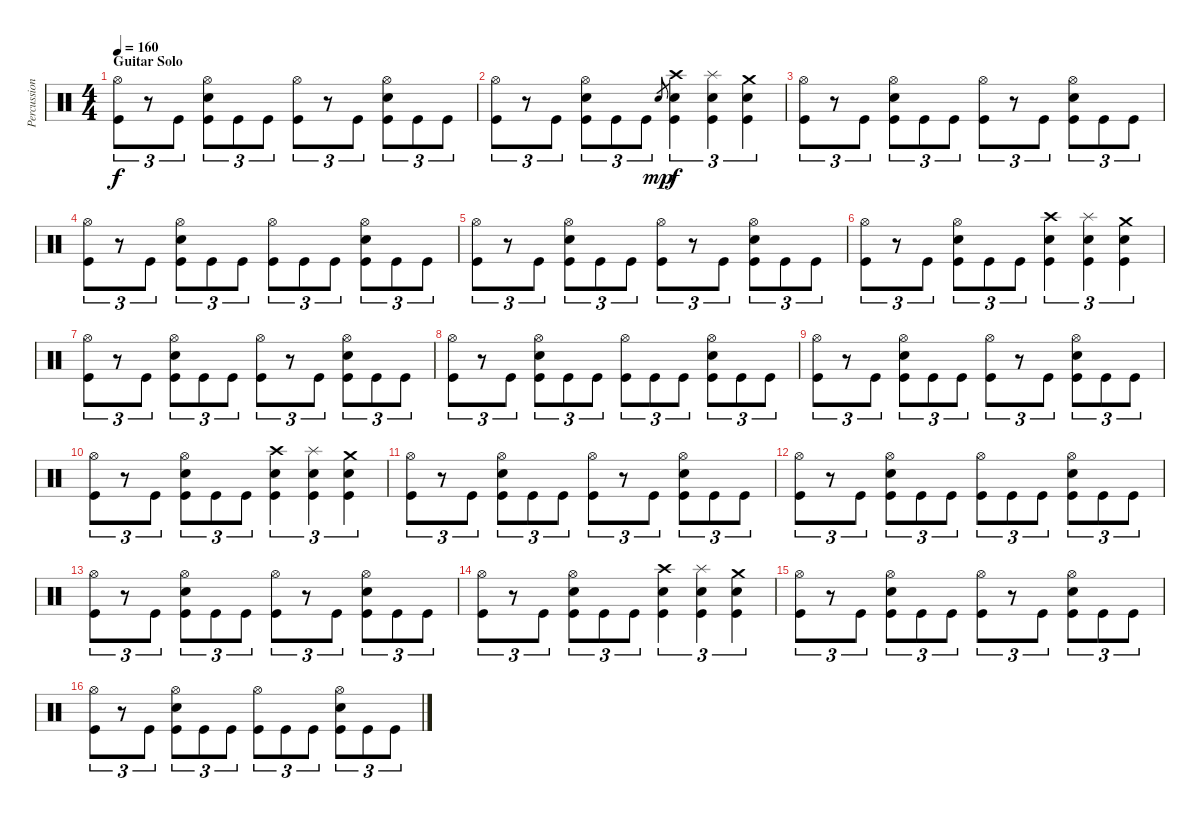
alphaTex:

\track ("Percussion" "Percussion") {instrument percussion}
\staff {score}
\articulation defaults
\ts (4 4)
\section ("" "Guitar Solo")
\tempo 160
\clef neutral
\ks c
("Hi-Hat (open)" "Kick (hit)").8{tu (3 2) dy f} r.8{tu (3 2)} "Kick (hit)".8{tu (3 2)} ("Hi-Hat (open)" "Snare (hit) 2" "Kick (hit)").8{tu (3 2)} "Kick (hit)".8{tu (3 2)} "Kick (hit)".8{tu (3 2)} ("Hi-Hat (open)" "Kick (hit)").8{tu (3 2)} r.8{tu (3 2)} "Kick (hit)".8{tu (3 2)} ("Hi-Hat (open)" "Snare (hit) 2" "Kick (hit)").8{tu (3 2)} "Kick (hit)".8{tu (3 2)} "Kick (hit)".8{tu (3 2)} |
("Hi-Hat (open)" "Kick (hit)").8{tu (3 2)} r.8{tu (3 2)} "Kick (hit)".8{tu (3 2)} ("Hi-Hat (open)" "Snare (hit) 2" "Kick (hit)").8{tu (3 2)} "Kick (hit)".8{tu (3 2)} "Kick (hit)".8{tu (3 2)} "Snare (hit) 2".8{gr dy mp} ("Snare (hit) 2" "Crash high (hit)" "Kick (hit)").4{tu (3 2) dy f} ("Snare (hit) 2" "Splash (hit)" "Kick (hit)").4{tu (3 2)} ("Snare (hit) 2" "Crash medium (hit)" "Kick (hit)").4{tu (3 2)} |
("Hi-Hat (open)" "Kick (hit)").8{tu (3 2)} r.8{tu (3 2)} "Kick (hit)".8{tu (3 2)} ("Hi-Hat (open)" "Snare (hit) 2" "Kick (hit)").8{tu (3 2)} "Kick (hit)".8{tu (3 2)} "Kick (hit)".8{tu (3 2)} ("Hi-Hat (open)" "Kick (hit)").8{tu (3 2)} r.8{tu (3 2)} "Kick (hit)".8{tu (3 2)} ("Hi-Hat (open)" "Snare (hit) 2" "Kick (hit)").8{tu (3 2)} "Kick (hit)".8{tu (3 2)} "Kick (hit)".8{tu (3 2)} |
("Hi-Hat (open)" "Kick (hit)").8{tu (3 2)} r.8{tu (3 2)} "Kick (hit)".8{tu (3 2)} ("Hi-Hat (open)" "Snare (hit) 2" "Kick (hit)").8{tu (3 2)} "Kick (hit)".8{tu (3 2)} "Kick (hit)".8{tu (3 2)} ("Hi-Hat (open)" "Kick (hit)").8{tu (3 2)} "Kick (hit)".8{tu (3 2)} "Kick (hit)".8{tu (3 2)} ("Hi-Hat (open)" "Snare (hit) 2" "Kick (hit)").8{tu (3 2)} "Kick (hit)".8{tu (3 2)} "Kick (hit)".8{tu (3 2)} |
("Hi-Hat (open)" "Kick (hit)").8{tu (3 2)} r.8{tu (3 2)} "Kick (hit)".8{tu (3 2)} ("Hi-Hat (open)" "Snare (hit) 2" "Kick (hit)").8{tu (3 2)} "Kick (hit)".8{tu (3 2)} "Kick (hit)".8{tu (3 2)} ("Hi-Hat (open)" "Kick (hit)").8{tu (3 2)} r.8{tu (3 2)} "Kick (hit)".8{tu (3 2)} ("Hi-Hat (open)" "Snare (hit) 2" "Kick (hit)").8{tu (3 2)} "Kick (hit)".8{tu (3 2)} "Kick (hit)".8{tu (3 2)} |
("Hi-Hat (open)" "Kick (hit)").8{tu (3 2)} r.8{tu (3 2)} "Kick (hit)".8{tu (3 2)} ("Hi-Hat (open)" "Snare (hit) 2" "Kick (hit)").8{tu (3 2)} "Kick (hit)".8{tu (3 2)} "Kick (hit)".8{tu (3 2)} ("Snare (hit) 2" "Crash high (hit)" "Kick (hit)").4{tu (3 2)} ("Snare (hit) 2" "Splash (hit)" "Kick (hit)").4{tu (3 2)} ("Snare (hit) 2" "Crash medium (hit)" "Kick (hit)").4{tu (3 2)} |
("Hi-Hat (open)" "Kick (hit)").8{tu (3 2)} r.8{tu (3 2)} "Kick (hit)".8{tu (3 2)} ("Hi-Hat (open)" "Snare (hit) 2" "Kick (hit)").8{tu (3 2)} "Kick (hit)".8{tu (3 2)} "Kick (hit)".8{tu (3 2)} ("Hi-Hat (open)" "Kick (hit)").8{tu (3 2)} r.8{tu (3 2)} "Kick (hit)".8{tu (3 2)} ("Hi-Hat (open)" "Snare (hit) 2" "Kick (hit)").8{tu (3 2)} "Kick (hit)".8{tu (3 2)} "Kick (hit)".8{tu (3 2)} |
("Hi-Hat (open)" "Kick (hit)").8{tu (3 2)} r.8{tu (3 2)} "Kick (hit)".8{tu (3 2)} ("Hi-Hat (open)" "Snare (hit) 2" "Kick (hit)").8{tu (3 2)} "Kick (hit)".8{tu (3 2)} "Kick (hit)".8{tu (3 2)} ("Hi-Hat (open)" "Kick (hit)").8{tu (3 2)} "Kick (hit)".8{tu (3 2)} "Kick (hit)".8{tu (3 2)} ("Hi-Hat (open)" "Snare (hit) 2" "Kick (hit)").8{tu (3 2)} "Kick (hit)".8{tu (3 2)} "Kick (hit)".8{tu (3 2)} |
("Hi-Hat (open)" "Kick (hit)").8{tu (3 2)} r.8{tu (3 2)} "Kick (hit)".8{tu (3 2)} ("Hi-Hat (open)" "Snare (hit) 2" "Kick (hit)").8{tu (3 2)} "Kick (hit)".8{tu (3 2)} "Kick (hit)".8{tu (3 2)} ("Hi-Hat (open)" "Kick (hit)").8{tu (3 2)} r.8{tu (3 2)} "Kick (hit)".8{tu (3 2)} ("Hi-Hat (open)" "Snare (hit) 2" "Kick (hit)").8{tu (3 2)} "Kick (hit)".8{tu (3 2)} "Kick (hit)".8{tu (3 2)} |
("Hi-Hat (open)" "Kick (hit)").8{tu (3 2)} r.8{tu (3 2)} "Kick (hit)".8{tu (3 2)} ("Hi-Hat (open)" "Snare (hit) 2" "Kick (hit)").8{tu (3 2)} "Kick (hit)".8{tu (3 2)} "Kick (hit)".8{tu (3 2)} ("Snare (hit) 2" "Crash high (hit)" "Kick (hit)").4{tu (3 2)} ("Snare (hit) 2" "Splash (hit)" "Kick (hit)").4{tu (3 2)} ("Snare (hit) 2" "Crash medium (hit)" "Kick (hit)").4{tu (3 2)} |
("Hi-Hat (open)" "Kick (hit)").8{tu (3 2)} r.8{tu (3 2)} "Kick (hit)".8{tu (3 2)} ("Hi-Hat (open)" "Snare (hit) 2" "Kick (hit)").8{tu (3 2)} "Kick (hit)".8{tu (3 2)} "Kick (hit)".8{tu (3 2)} ("Hi-Hat (open)" "Kick (hit)").8{tu (3 2)} r.8{tu (3 2)} "Kick (hit)".8{tu (3 2)} ("Hi-Hat (open)" "Snare (hit) 2" "Kick (hit)").8{tu (3 2)} "Kick (hit)".8{tu (3 2)} "Kick (hit)".8{tu (3 2)} |
("Hi-Hat (open)" "Kick (hit)").8{tu (3 2)} r.8{tu (3 2)} "Kick (hit)".8{tu (3 2)} ("Hi-Hat (open)" "Snare (hit) 2" "Kick (hit)").8{tu (3 2)} "Kick (hit)".8{tu (3 2)} "Kick (hit)".8{tu (3 2)} ("Hi-Hat (open)" "Kick (hit)").8{tu (3 2)} "Kick (hit)".8{tu (3 2)} "Kick (hit)".8{tu (3 2)} ("Hi-Hat (open)" "Snare (hit) 2" "Kick (hit)").8{tu (3 2)} "Kick (hit)".8{tu (3 2)} "Kick (hit)".8{tu (3 2)} |
("Hi-Hat (open)" "Kick (hit)").8{tu (3 2)} r.8{tu (3 2)} "Kick (hit)".8{tu (3 2)} ("Hi-Hat (open)" "Snare (hit) 2" "Kick (hit)").8{tu (3 2)} "Kick (hit)".8{tu (3 2)} "Kick (hit)".8{tu (3 2)} ("Hi-Hat (open)" "Kick (hit)").8{tu (3 2)} r.8{tu (3 2)} "Kick (hit)".8{tu (3 2)} ("Hi-Hat (open)" "Snare (hit) 2" "Kick (hit)").8{tu (3 2)} "Kick (hit)".8{tu (3 2)} "Kick (hit)".8{tu (3 2)} |
("Hi-Hat (open)" "Kick (hit)").8{tu (3 2)} r.8{tu (3 2)} "Kick (hit)".8{tu (3 2)} ("Hi-Hat (open)" "Snare (hit) 2" "Kick (hit)").8{tu (3 2)} "Kick (hit)".8{tu (3 2)} "Kick (hit)".8{tu (3 2)} ("Snare (hit) 2" "Crash high (hit)" "Kick (hit)").4{tu (3 2)} ("Snare (hit) 2" "Splash (hit)" "Kick (hit)").4{tu (3 2)} ("Snare (hit) 2" "Crash medium (hit)" "Kick (hit)").4{tu (3 2)} |
("Hi-Hat (open)" "Kick (hit)").8{tu (3 2)} r.8{tu (3 2)} "Kick (hit)".8{tu (3 2)} ("Hi-Hat (open)" "Snare (hit) 2" "Kick (hit)").8{tu (3 2)} "Kick (hit)".8{tu (3 2)} "Kick (hit)".8{tu (3 2)} ("Hi-Hat (open)" "Kick (hit)").8{tu (3 2)} r.8{tu (3 2)} "Kick (hit)".8{tu (3 2)} ("Hi-Hat (open)" "Snare (hit) 2" "Kick (hit)").8{tu (3 2)} "Kick (hit)".8{tu (3 2)} "Kick (hit)".8{tu (3 2)} |
("Hi-Hat (open)" "Kick (hit)").8{tu (3 2)} r.8{tu (3 2)} "Kick (hit)".8{tu (3 2)} ("Hi-Hat (open)" "Snare (hit) 2" "Kick (hit)").8{tu (3 2)} "Kick (hit)".8{tu (3 2)} "Kick (hit)".8{tu (3 2)} ("Hi-Hat (open)" "Kick (hit)").8{tu (3 2)} "Kick (hit)".8{tu (3 2)} "Kick (hit)".8{tu (3 2)} ("Hi-Hat (open)" "Snare (hit) 2" "Kick (hit)").8{tu (3 2)} "Kick (hit)".8{tu (3 2)} "Kick (hit)".8{tu (3 2)}
